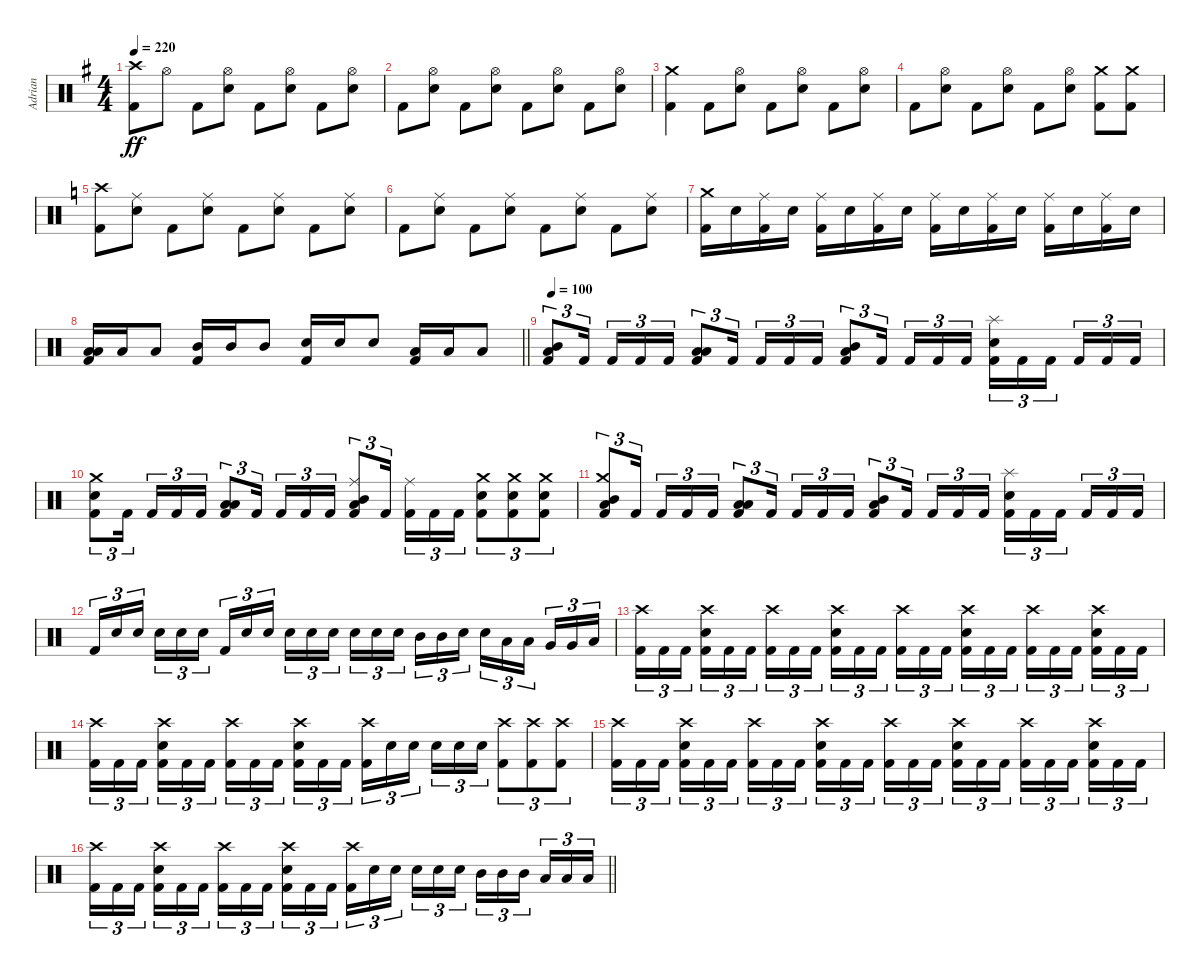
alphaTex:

\track ("Adrian" "Adrian") {instrument percussion}
\staff {score}
\articulation defaults
\ts (4 4)
\tempo 220
\clef neutral
\ks g
("Crash high (hit)" "Kick (hit) 2").8{dy ff} "Hi-Hat (open)".8 "Kick (hit) 2".8 ("Hi-Hat (open)" "Electric Snare (hit)").8 "Kick (hit) 2".8 ("Hi-Hat (open)" "Electric Snare (hit)").8 "Kick (hit) 2".8 ("Hi-Hat (open)" "Electric Snare (hit)").8 |
"Kick (hit) 2".8 ("Hi-Hat (open)" "Electric Snare (hit)").8 "Kick (hit) 2".8 ("Hi-Hat (open)" "Electric Snare (hit)").8 "Kick (hit) 2".8 ("Hi-Hat (open)" "Electric Snare (hit)").8 "Kick (hit) 2".8 ("Hi-Hat (open)" "Electric Snare (hit)").8 |
("Crash medium (hit)" "Kick (hit) 2").4 "Kick (hit) 2".8 ("Hi-Hat (open)" "Electric Snare (hit)").8 "Kick (hit) 2".8 ("Hi-Hat (open)" "Electric Snare (hit)").8 "Kick (hit) 2".8 ("Hi-Hat (open)" "Electric Snare (hit)").8 |
"Kick (hit) 2".8 ("Hi-Hat (open)" "Electric Snare (hit)").8 "Kick (hit) 2".8 ("Hi-Hat (open)" "Electric Snare (hit)").8 "Kick (hit) 2".8 ("Hi-Hat (open)" "Electric Snare (hit)").8 ("Crash medium (hit)" "Kick (hit) 2").8 ("Crash medium (hit)" "Kick (hit) 2").8 |
\ks c
("Crash high (hit)" "Kick (hit) 2").8 ("Ride (middle)" "Electric Snare (hit)").8 "Kick (hit) 2".8 ("Ride (middle)" "Electric Snare (hit)").8 "Kick (hit) 2".8 ("Ride (middle)" "Electric Snare (hit)").8 "Kick (hit) 2".8 ("Ride (middle)" "Electric Snare (hit)").8 |
"Kick (hit) 2".8 ("Ride (middle)" "Electric Snare (hit)").8 "Kick (hit) 2".8 ("Ride (middle)" "Electric Snare (hit)").8 "Kick (hit) 2".8 ("Ride (middle)" "Electric Snare (hit)").8 "Kick (hit) 2".8 ("Ride (middle)" "Electric Snare (hit)").8 |
("Crash medium (hit)" "Kick (hit) 2").16 "Electric Snare (hit)".16 ("Ride (middle)" "Kick (hit) 2").16 "Electric Snare (hit)".16 ("Ride (middle)" "Kick (hit) 2").16 "Electric Snare (hit)".16 ("Ride (middle)" "Kick (hit) 2").16 "Electric Snare (hit)".16 ("Ride (middle)" "Kick (hit) 2").16 "Electric Snare (hit)".16 ("Ride (middle)" "Kick (hit) 2").16 "Electric Snare (hit)".16 ("Ride (middle)" "Kick (hit) 2").16 "Electric Snare (hit)".16 ("Ride (middle)" "Kick (hit) 2").16 "Electric Snare (hit)".16 |
\barLineRight lightlight
("Low Tom (hit)" "Low Tom (hit)" "Kick (hit) 2").16 "Low Tom (hit)".16 "Low Tom (hit)".8 ("Mid Tom (hit)" "Kick (hit) 2").16 "Mid Tom (hit)".16 "Mid Tom (hit)".8 ("Electric Snare (hit)" "Kick (hit) 2").16 "Electric Snare (hit)".16 "Electric Snare (hit)".8 ("Low Tom (hit)" "Kick (hit) 2").16 "Low Tom (hit)".16 "Low Tom (hit)".8 |
\tempo 100
("Mid Tom (hit)" "Low Floor Tom (hit)" "Kick (hit) 2").8{tu (3 2)} "Kick (hit) 2".16{tu (3 2) beam splitsecondary} "Kick (hit) 2".16{tu (3 2)} "Kick (hit) 2".16{tu (3 2)} "Kick (hit) 2".16{tu (3 2)} ("Low Tom (hit)" "Low Floor Tom (hit)" "Kick (hit) 2").8{tu (3 2)} "Kick (hit) 2".16{tu (3 2) beam splitsecondary} "Kick (hit) 2".16{tu (3 2)} "Kick (hit) 2".16{tu (3 2)} "Kick (hit) 2".16{tu (3 2)} ("Mid Tom (hit)" "Low Floor Tom (hit)" "Kick (hit) 2").8{tu (3 2)} "Kick (hit) 2".16{tu (3 2) beam splitsecondary} "Kick (hit) 2".16{tu (3 2)} "Kick (hit) 2".16{tu (3 2)} "Kick (hit) 2".16{tu (3 2)} ("Splash (hit)" "Electric Snare (hit)" "Kick (hit) 2").16{tu (3 2)} "Kick (hit) 2".16{tu (3 2)} "Kick (hit) 2".16{tu (3 2) beam splitsecondary} "Kick (hit) 2".16{tu (3 2)} "Kick (hit) 2".16{tu (3 2)} "Kick (hit) 2".16{tu (3 2)} |
("Crash medium (hit)" "Electric Snare (hit)" "Kick (hit) 2").8{tu (3 2)} "Kick (hit) 2".16{tu (3 2) beam splitsecondary} "Kick (hit) 2".16{tu (3 2)} "Kick (hit) 2".16{tu (3 2)} "Kick (hit) 2".16{tu (3 2)} ("Low Tom (hit)" "Low Floor Tom (hit)" "Kick (hit) 2").8{tu (3 2)} "Kick (hit) 2".16{tu (3 2) beam splitsecondary} "Kick (hit) 2".16{tu (3 2)} "Kick (hit) 2".16{tu (3 2)} "Kick (hit) 2".16{tu (3 2)} ("Ride (middle)" "Mid Tom (hit)" "Low Floor Tom (hit)" "Kick (hit) 2").8{tu (3 2)} "Kick (hit) 2".16{tu (3 2) beam splitsecondary} ("Ride (middle)" "Kick (hit) 2").16{tu (3 2)} "Kick (hit) 2".16{tu (3 2)} "Kick (hit) 2".16{tu (3 2)} ("Crash medium (hit)" "Electric Snare (hit)" "Kick (hit) 2").8{tu (3 2)} ("Crash medium (hit)" "Electric Snare (hit)" "Kick (hit) 2").8{tu (3 2)} ("Crash medium (hit)" "Electric Snare (hit)" "Kick (hit) 2").8{tu (3 2)} |
("Crash medium (hit)" "Mid Tom (hit)" "Low Floor Tom (hit)" "Kick (hit) 2").8{tu (3 2)} "Kick (hit) 2".16{tu (3 2) beam splitsecondary} "Kick (hit) 2".16{tu (3 2)} "Kick (hit) 2".16{tu (3 2)} "Kick (hit) 2".16{tu (3 2)} ("Low Tom (hit)" "Low Floor Tom (hit)" "Kick (hit) 2").8{tu (3 2)} "Kick (hit) 2".16{tu (3 2) beam splitsecondary} "Kick (hit) 2".16{tu (3 2)} "Kick (hit) 2".16{tu (3 2)} "Kick (hit) 2".16{tu (3 2)} ("Mid Tom (hit)" "Low Floor Tom (hit)" "Kick (hit) 2").8{tu (3 2)} "Kick (hit) 2".16{tu (3 2) beam splitsecondary} "Kick (hit) 2".16{tu (3 2)} "Kick (hit) 2".16{tu (3 2)} "Kick (hit) 2".16{tu (3 2)} ("Splash (hit)" "Electric Snare (hit)" "Kick (hit) 2").16{tu (3 2)} "Kick (hit) 2".16{tu (3 2)} "Kick (hit) 2".16{tu (3 2) beam splitsecondary} "Kick (hit) 2".16{tu (3 2)} "Kick (hit) 2".16{tu (3 2)} "Kick (hit) 2".16{tu (3 2)} |
"Kick (hit) 2".16{tu (3 2)} "Electric Snare (hit)".16{tu (3 2)} "Electric Snare (hit)".16{tu (3 2) beam splitsecondary} "Electric Snare (hit)".16{tu (3 2)} "Electric Snare (hit)".16{tu (3 2)} "Electric Snare (hit)".16{tu (3 2)} "Kick (hit) 2".16{tu (3 2)} "Electric Snare (hit)".16{tu (3 2)} "Electric Snare (hit)".16{tu (3 2) beam splitsecondary} "Electric Snare (hit)".16{tu (3 2)} "Electric Snare (hit)".16{tu (3 2)} "Electric Snare (hit)".16{tu (3 2)} "Electric Snare (hit)".16{tu (3 2)} "Electric Snare (hit)".16{tu (3 2)} "Electric Snare (hit)".16{tu (3 2) beam splitsecondary} "Mid Tom (hit)".16{tu (3 2)} "Mid Tom (hit)".16{tu (3 2)} "Electric Snare (hit)".16{tu (3 2)} "Electric Snare (hit)".16{tu (3 2)} "Low Tom (hit)".16{tu (3 2)} "Low Tom (hit)".16{tu (3 2) beam splitsecondary} "Very Low Tom (hit)".16{tu (3 2)} "Very Low Tom (hit)".16{tu (3 2)} "Low Floor Tom (hit)".16{tu (3 2)} |
("Crash high (hit)" "Kick (hit) 2").16{tu (3 2)} "Kick (hit) 2".16{tu (3 2)} "Kick (hit) 2".16{tu (3 2) beam splitsecondary} ("Crash high (hit)" "Electric Snare (hit)" "Kick (hit) 2").16{tu (3 2)} "Kick (hit) 2".16{tu (3 2)} "Kick (hit) 2".16{tu (3 2)} ("Crash high (hit)" "Kick (hit) 2").16{tu (3 2)} "Kick (hit) 2".16{tu (3 2)} "Kick (hit) 2".16{tu (3 2) beam splitsecondary} ("Crash high (hit)" "Electric Snare (hit)" "Kick (hit) 2").16{tu (3 2)} "Kick (hit) 2".16{tu (3 2)} "Kick (hit) 2".16{tu (3 2)} ("Crash high (hit)" "Kick (hit) 2").16{tu (3 2)} "Kick (hit) 2".16{tu (3 2)} "Kick (hit) 2".16{tu (3 2) beam splitsecondary} ("Crash high (hit)" "Electric Snare (hit)" "Kick (hit) 2").16{tu (3 2)} "Kick (hit) 2".16{tu (3 2)} "Kick (hit) 2".16{tu (3 2)} ("Crash high (hit)" "Kick (hit) 2").16{tu (3 2)} "Kick (hit) 2".16{tu (3 2)} "Kick (hit) 2".16{tu (3 2) beam splitsecondary} ("Crash high (hit)" "Electric Snare (hit)" "Kick (hit) 2").16{tu (3 2)} "Kick (hit) 2".16{tu (3 2)} "Kick (hit) 2".16{tu (3 2)} |
("Crash high (hit)" "Kick (hit) 2").16{tu (3 2)} "Kick (hit) 2".16{tu (3 2)} "Kick (hit) 2".16{tu (3 2) beam splitsecondary} ("Crash high (hit)" "Electric Snare (hit)" "Kick (hit) 2").16{tu (3 2)} "Kick (hit) 2".16{tu (3 2)} "Kick (hit) 2".16{tu (3 2)} ("Crash high (hit)" "Kick (hit) 2").16{tu (3 2)} "Kick (hit) 2".16{tu (3 2)} "Kick (hit) 2".16{tu (3 2) beam splitsecondary} ("Crash high (hit)" "Electric Snare (hit)" "Kick (hit) 2").16{tu (3 2)} "Kick (hit) 2".16{tu (3 2)} "Kick (hit) 2".16{tu (3 2)} ("Crash high (hit)" "Kick (hit) 2").16{tu (3 2)} "Electric Snare (hit)".16{tu (3 2)} "Electric Snare (hit)".16{tu (3 2) beam splitsecondary} "Electric Snare (hit)".16{tu (3 2)} "Electric Snare (hit)".16{tu (3 2)} "Electric Snare (hit)".16{tu (3 2)} ("Crash high (hit)" "Kick (hit) 2").8{tu (3 2)} ("Crash high (hit)" "Kick (hit) 2").8{tu (3 2)} ("Crash high (hit)" "Kick (hit) 2").8{tu (3 2)} |
("Crash high (hit)" "Kick (hit) 2").16{tu (3 2)} "Kick (hit) 2".16{tu (3 2)} "Kick (hit) 2".16{tu (3 2) beam splitsecondary} ("Crash high (hit)" "Electric Snare (hit)" "Kick (hit) 2").16{tu (3 2)} "Kick (hit) 2".16{tu (3 2)} "Kick (hit) 2".16{tu (3 2)} ("Crash high (hit)" "Kick (hit) 2").16{tu (3 2)} "Kick (hit) 2".16{tu (3 2)} "Kick (hit) 2".16{tu (3 2) beam splitsecondary} ("Crash high (hit)" "Electric Snare (hit)" "Kick (hit) 2").16{tu (3 2)} "Kick (hit) 2".16{tu (3 2)} "Kick (hit) 2".16{tu (3 2)} ("Crash high (hit)" "Kick (hit) 2").16{tu (3 2)} "Kick (hit) 2".16{tu (3 2)} "Kick (hit) 2".16{tu (3 2) beam splitsecondary} ("Crash high (hit)" "Electric Snare (hit)" "Kick (hit) 2").16{tu (3 2)} "Kick (hit) 2".16{tu (3 2)} "Kick (hit) 2".16{tu (3 2)} ("Crash high (hit)" "Kick (hit) 2").16{tu (3 2)} "Kick (hit) 2".16{tu (3 2)} "Kick (hit) 2".16{tu (3 2) beam splitsecondary} ("Crash high (hit)" "Electric Snare (hit)" "Kick (hit) 2").16{tu (3 2)} "Kick (hit) 2".16{tu (3 2)} "Kick (hit) 2".16{tu (3 2)} |
\barLineRight lightlight
("Crash high (hit)" "Kick (hit) 2").16{tu (3 2)} "Kick (hit) 2".16{tu (3 2)} "Kick (hit) 2".16{tu (3 2) beam splitsecondary} ("Crash high (hit)" "Electric Snare (hit)" "Kick (hit) 2").16{tu (3 2)} "Kick (hit) 2".16{tu (3 2)} "Kick (hit) 2".16{tu (3 2)} ("Crash high (hit)" "Kick (hit) 2").16{tu (3 2)} "Kick (hit) 2".16{tu (3 2)} "Kick (hit) 2".16{tu (3 2) beam splitsecondary} ("Crash high (hit)" "Electric Snare (hit)" "Kick (hit) 2").16{tu (3 2)} "Kick (hit) 2".16{tu (3 2)} "Kick (hit) 2".16{tu (3 2)} ("Crash high (hit)" "Kick (hit) 2").16{tu (3 2)} "Electric Snare (hit)".16{tu (3 2)} "Electric Snare (hit)".16{tu (3 2) beam splitsecondary} "Electric Snare (hit)".16{tu (3 2)} "Electric Snare (hit)".16{tu (3 2)} "Electric Snare (hit)".16{tu (3 2)} "Mid Tom (hit)".16{tu (3 2)} "Mid Tom (hit)".16{tu (3 2)} "Mid Tom (hit)".16{tu (3 2) beam splitsecondary} "Low Tom (hit)".16{tu (3 2)} "Low Tom (hit)".16{tu (3 2)} "Low Tom (hit)".16{tu (3 2)}
